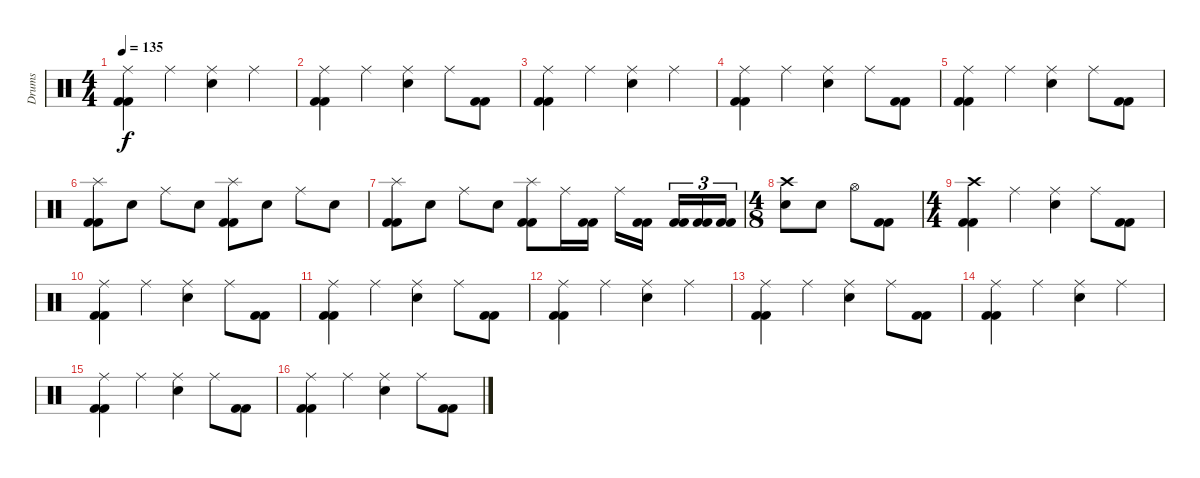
\track ("Drums" "Drums") {instrument percussion}
\staff {score}
\articulation defaults
\ts (4 4)
\tempo 135
\clef neutral
\ks c
("Ride (middle)" "Kick (hit) 2" "Kick (hit) 2").4{dy f} "Ride (middle)".4 ("Ride (middle)" "Electric Snare (hit)").4 "Ride (middle)".4 |
("Ride (middle)" "Kick (hit) 2" "Kick (hit) 2").4 "Ride (middle)".4 ("Ride (middle)" "Electric Snare (hit)").4 "Ride (middle)".8 ("Kick (hit) 2" "Kick (hit) 2").8 |
("Ride (middle)" "Kick (hit) 2" "Kick (hit) 2").4 "Ride (middle)".4 ("Ride (middle)" "Electric Snare (hit)").4 "Ride (middle)".4 |
("Ride (middle)" "Kick (hit) 2" "Kick (hit) 2").4 "Ride (middle)".4 ("Ride (middle)" "Electric Snare (hit)").4 "Ride (middle)".8 ("Kick (hit) 2" "Kick (hit) 2").8 |
("Ride (middle)" "Kick (hit) 2" "Kick (hit) 2").4 "Ride (middle)".4 ("Ride (middle)" "Electric Snare (hit)").4 "Ride (middle)".8 ("Kick (hit) 2" "Kick (hit) 2").8 |
("Splash (hit)" "Kick (hit) 2" "Kick (hit) 2").8 "Electric Snare (hit)".8 "Ride (middle)".8 "Electric Snare (hit)".8 ("Splash (hit)" "Kick (hit) 2" "Kick (hit) 2").8 "Electric Snare (hit)".8 "Ride (middle)".8 "Electric Snare (hit)".8 |
("Splash (hit)" "Kick (hit) 2" "Kick (hit) 2").8 "Electric Snare (hit)".8 "Ride (middle)".8 "Electric Snare (hit)".8 ("Splash (hit)" "Kick (hit) 2" "Kick (hit) 2").8 "Ride (middle)".16 ("Kick (hit) 2" "Kick (hit) 2").16 "Ride (middle)".16 ("Kick (hit) 2" "Kick (hit) 2").16{beam splitsecondary} ("Kick (hit) 2" "Kick (hit) 2").16{tu (3 2)} ("Kick (hit) 2" "Kick (hit) 2").16{tu (3 2)} ("Kick (hit) 2" "Kick (hit) 2").16{tu (3 2)} |
\ts (4 8)
("Crash high (hit)" "Electric Snare (hit)").8 "Electric Snare (hit)".8 "Hi-Hat (open)".8 ("Kick (hit) 2" "Kick (hit) 2").8 |
\ts (4 4)
("Crash high (hit)" "Kick (hit) 2" "Kick (hit) 2").4 "Ride (middle)".4 ("Ride (middle)" "Electric Snare (hit)").4 "Ride (middle)".8 ("Kick (hit) 2" "Kick (hit) 2").8 |
("Ride (middle)" "Kick (hit) 2" "Kick (hit) 2").4 "Ride (middle)".4 ("Ride (middle)" "Electric Snare (hit)").4 "Ride (middle)".8 ("Kick (hit) 2" "Kick (hit) 2").8 |
("Ride (middle)" "Kick (hit) 2" "Kick (hit) 2").4 "Ride (middle)".4 ("Ride (middle)" "Electric Snare (hit)").4 "Ride (middle)".8 ("Kick (hit) 2" "Kick (hit) 2").8 |
("Ride (middle)" "Kick (hit) 2" "Kick (hit) 2").4 "Ride (middle)".4 ("Ride (middle)" "Electric Snare (hit)").4 "Ride (middle)".4 |
("Ride (middle)" "Kick (hit) 2" "Kick (hit) 2").4 "Ride (middle)".4 ("Ride (middle)" "Electric Snare (hit)").4 "Ride (middle)".8 ("Kick (hit) 2" "Kick (hit) 2").8 |
("Ride (middle)" "Kick (hit) 2" "Kick (hit) 2").4 "Ride (middle)".4 ("Ride (middle)" "Electric Snare (hit)").4 "Ride (middle)".4 |
("Ride (middle)" "Kick (hit) 2" "Kick (hit) 2").4 "Ride (middle)".4 ("Ride (middle)" "Electric Snare (hit)").4 "Ride (middle)".8 ("Kick (hit) 2" "Kick (hit) 2").8 |
("Ride (middle)" "Kick (hit) 2" "Kick (hit) 2").4 "Ride (middle)".4 ("Ride (middle)" "Electric Snare (hit)").4 "Ride (middle)".8 ("Kick (hit) 2" "Kick (hit) 2").8
